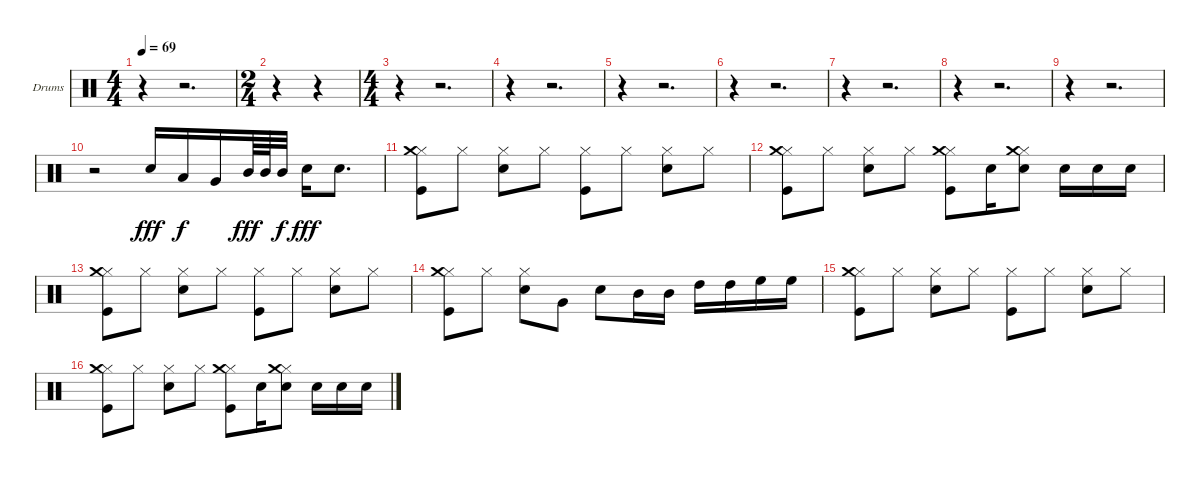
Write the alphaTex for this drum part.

\bracketExtendMode groupsimilarinstruments
\firstSystemTrackNameOrientation horizontal
\otherSystemsTrackNameOrientation horizontal
\track ("Барабаны" "Drums") {instrument percussion}
\staff {score}
\articulation defaults
\ts (4 4)
\tempo 69
\clef neutral
\ks c
r.4{dy fff} r.2{d} |
\ts (2 4)
r.4 r.4 |
\ts (4 4)
r.4 r.2{d} |
r.4 r.2{d} |
r.4 r.2{d} |
r.4 r.2{d} |
r.4 r.2{d} |
r.4 r.2{d} |
r.4 r.2{d} |
r.2 "Snare (hit) 2".16 "Low Tom (hit)".16{dy f} "Very Low Tom (hit)".16 "Mid Tom (hit)".64{dy fff} "Mid Tom (hit)".64 "Mid Tom (hit)".32{dy f} "Snare (hit) 2".16{dy fff} "Snare (hit) 2".8{d} |
("Hi-Hat (closed)" "Kick (hit)" "Crash medium (hit)").8 "Hi-Hat (closed)".8 ("Hi-Hat (closed)" "Snare (hit) 2").8 "Hi-Hat (closed)".8 ("Hi-Hat (closed)" "Kick (hit)").8 "Hi-Hat (closed)".8 ("Hi-Hat (closed)" "Snare (hit) 2").8 "Hi-Hat (closed)".8 |
("Hi-Hat (closed)" "Kick (hit)" "Crash medium (hit)").8 "Hi-Hat (closed)".8 ("Hi-Hat (closed)" "Snare (hit) 2").8 "Hi-Hat (closed)".8 ("Hi-Hat (closed)" "Kick (hit)" "Crash medium (hit)").8 "Snare (hit) 2".16 ("Hi-Hat (closed)" "Snare (hit) 2" "Crash medium (hit)").8 "Snare (hit) 2".16 "Snare (hit) 2".16 "Snare (hit) 2".16 |
("Hi-Hat (closed)" "Kick (hit)" "Crash medium (hit)").8 "Hi-Hat (closed)".8 ("Hi-Hat (closed)" "Snare (hit) 2").8 "Hi-Hat (closed)".8 ("Hi-Hat (closed)" "Kick (hit)").8 "Hi-Hat (closed)".8 ("Hi-Hat (closed)" "Snare (hit) 2").8 "Hi-Hat (closed)".8 |
("Hi-Hat (closed)" "Kick (hit)" "Crash medium (hit)").8 "Hi-Hat (closed)".8 ("Hi-Hat (closed)" "Snare (hit) 2").8 "Very Low Tom (hit)".8 "Snare (hit) 2".8 "Mid Tom (hit)".16 "Mid Tom (hit)".16 "High Tom (hit)".16 "High Tom (hit)".16 "High Floor Tom (hit)".16 "High Floor Tom (hit)".16 |
("Hi-Hat (closed)" "Kick (hit)" "Crash medium (hit)").8 "Hi-Hat (closed)".8 ("Hi-Hat (closed)" "Snare (hit) 2").8 "Hi-Hat (closed)".8 ("Hi-Hat (closed)" "Kick (hit)").8 "Hi-Hat (closed)".8 ("Hi-Hat (closed)" "Snare (hit) 2").8 "Hi-Hat (closed)".8 |
("Hi-Hat (closed)" "Kick (hit)" "Crash medium (hit)").8 "Hi-Hat (closed)".8 ("Hi-Hat (closed)" "Snare (hit) 2").8 "Hi-Hat (closed)".8 ("Hi-Hat (closed)" "Kick (hit)" "Crash medium (hit)").8 "Snare (hit) 2".16 ("Hi-Hat (closed)" "Snare (hit) 2" "Crash medium (hit)").8 "Snare (hit) 2".16 "Snare (hit) 2".16 "Snare (hit) 2".16
